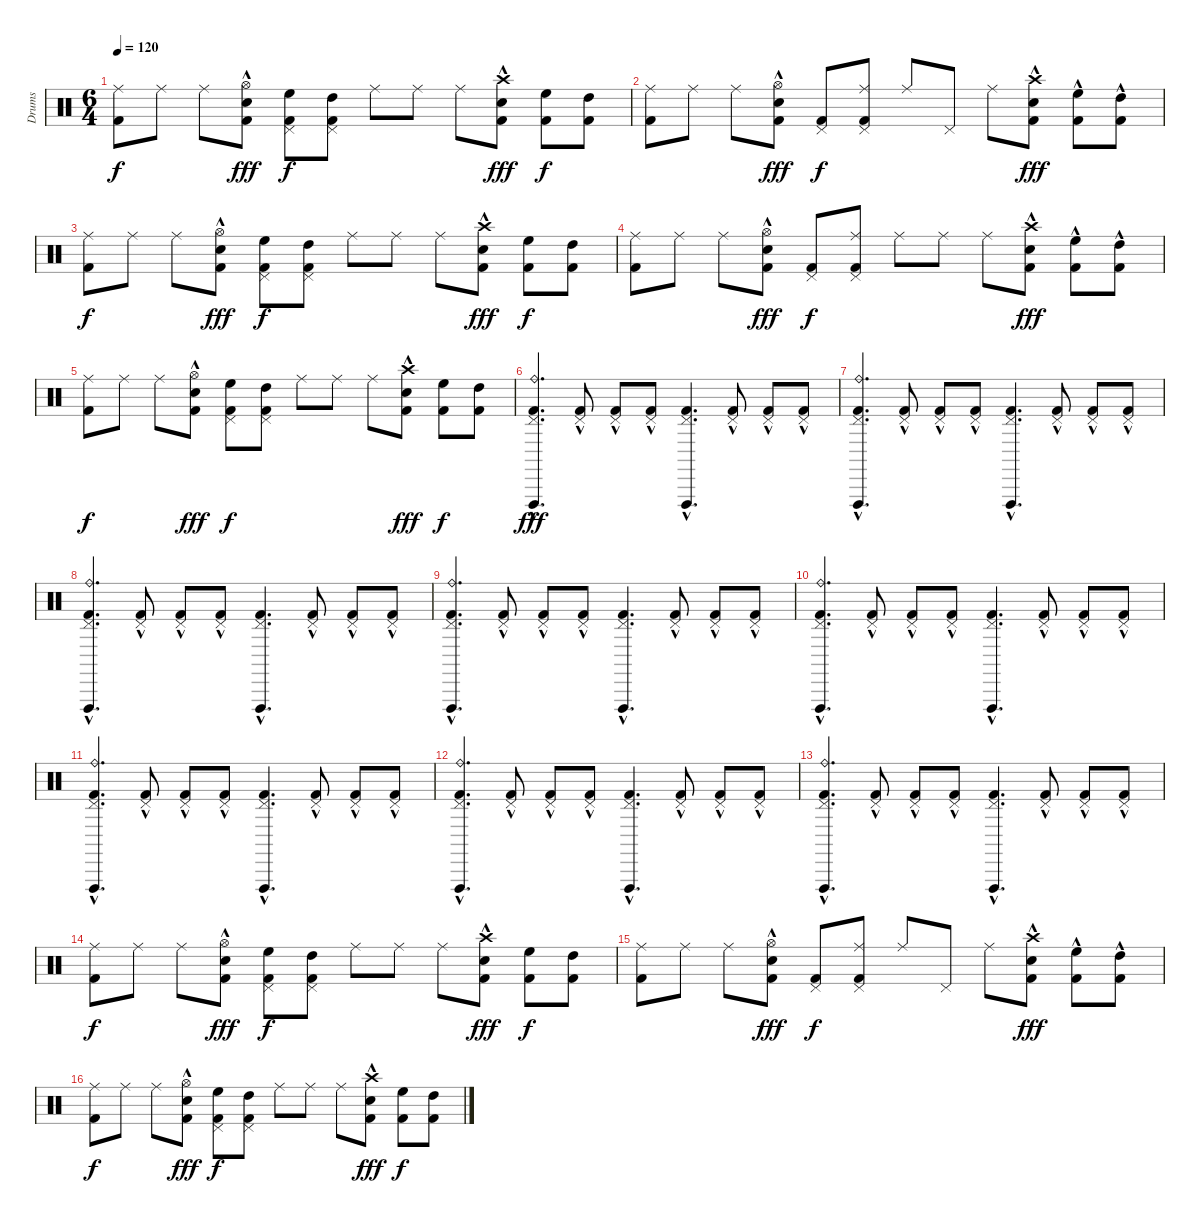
\track ("Drums" "Drums") {instrument percussion}
\staff {score}
\articulation defaults
\ts (6 4)
\tempo 120
\clef neutral
\ks c
("Ride (middle)" "Kick (hit) 2").8{dy f} "Ride (middle)".8 "Ride (middle)".8 ("Hi-Hat (open)" "Snare (hit) 2"{hac} "Kick (hit) 2").8{dy fff} ("Pedal Hi-Hat (hit)" "High Floor Tom (hit)" "Kick (hit) 2").8{dy f} ("Pedal Hi-Hat (hit)" "High Tom (hit)" "Kick (hit) 2").8 "Ride (middle)".8 "Ride (middle)".8 "Ride (middle)".8 ("Crash high (hit)" "Snare (hit) 2"{hac} "Kick (hit) 2").8{dy fff} ("High Floor Tom (hit)" "Kick (hit) 2").8{dy f} ("High Tom (hit)" "Kick (hit) 2").8 |
("Ride (middle)" "Kick (hit) 2").8 "Ride (middle)".8 "Ride (middle)".8 ("Hi-Hat (open)" "Snare (hit) 2"{hac} "Kick (hit) 2").8{dy fff} ("Pedal Hi-Hat (hit)" "Kick (hit) 2").8{dy f} ("Pedal Hi-Hat (hit)" "Ride (middle)" "Kick (hit) 2").8 "Ride (middle)".8 "Pedal Hi-Hat (hit)".8 "Ride (middle)".8 ("Crash high (hit)" "Snare (hit) 2"{hac} "Kick (hit) 2").8{dy fff} ("High Floor Tom (hit)"{hac} "Kick (hit) 2").8 ("High Tom (hit)"{hac} "Kick (hit) 2").8 |
("Ride (middle)" "Kick (hit) 2").8{dy f} "Ride (middle)".8 "Ride (middle)".8 ("Hi-Hat (open)" "Snare (hit) 2"{hac} "Kick (hit) 2").8{dy fff} ("Pedal Hi-Hat (hit)" "High Floor Tom (hit)" "Kick (hit) 2").8{dy f} ("Pedal Hi-Hat (hit)" "High Tom (hit)" "Kick (hit) 2").8 "Ride (middle)".8 "Ride (middle)".8 "Ride (middle)".8 ("Crash high (hit)" "Snare (hit) 2"{hac} "Kick (hit) 2").8{dy fff} ("High Floor Tom (hit)" "Kick (hit) 2").8{dy f} ("High Tom (hit)" "Kick (hit) 2").8 |
("Ride (middle)" "Kick (hit) 2").8 "Ride (middle)".8 "Ride (middle)".8 ("Hi-Hat (open)" "Snare (hit) 2"{hac} "Kick (hit) 2").8{dy fff} ("Pedal Hi-Hat (hit)" "Kick (hit) 2").8{dy f} ("Pedal Hi-Hat (hit)" "Ride (middle)" "Kick (hit) 2").8 "Ride (middle)".8 "Ride (middle)".8 "Ride (middle)".8 ("Crash high (hit)" "Snare (hit) 2"{hac} "Kick (hit) 2").8{dy fff} ("High Floor Tom (hit)"{hac} "Kick (hit) 2").8 ("High Tom (hit)"{hac} "Kick (hit) 2").8 |
("Ride (middle)" "Kick (hit) 2").8{dy f} "Ride (middle)".8 "Ride (middle)".8 ("Hi-Hat (open)" "Snare (hit) 2"{hac} "Kick (hit) 2").8{dy fff} ("Pedal Hi-Hat (hit)" "High Floor Tom (hit)" "Kick (hit) 2").8{dy f} ("Pedal Hi-Hat (hit)" "High Tom (hit)" "Kick (hit) 2").8 "Ride (middle)".8 "Ride (middle)".8 "Ride (middle)".8 ("Crash high (hit)" "Snare (hit) 2"{hac} "Kick (hit) 2").8{dy fff} ("High Floor Tom (hit)" "Kick (hit) 2").8{dy f} ("High Tom (hit)" "Kick (hit) 2").8 |
("Pedal Hi-Hat (hit)" "Ride (bell)" "Vibraslap (hit)"{hac} "Kick (hit) 2"{hac}).4{d dy fff} ("Pedal Hi-Hat (hit)" "Kick (hit) 2"{hac}).8 ("Pedal Hi-Hat (hit)" "Kick (hit) 2"{hac}).8 ("Pedal Hi-Hat (hit)" "Kick (hit) 2"{hac}).8 ("Pedal Hi-Hat (hit)" "Vibraslap (hit)"{hac} "Kick (hit) 2"{hac}).4{d} ("Pedal Hi-Hat (hit)" "Kick (hit) 2"{hac}).8 ("Pedal Hi-Hat (hit)" "Kick (hit) 2"{hac}).8 ("Pedal Hi-Hat (hit)" "Kick (hit) 2"{hac}).8 |
("Pedal Hi-Hat (hit)" "Ride (bell)" "Vibraslap (hit)"{hac} "Kick (hit) 2"{hac}).4{d} ("Pedal Hi-Hat (hit)" "Kick (hit) 2"{hac}).8 ("Pedal Hi-Hat (hit)" "Kick (hit) 2"{hac}).8 ("Pedal Hi-Hat (hit)" "Kick (hit) 2"{hac}).8 ("Pedal Hi-Hat (hit)" "Vibraslap (hit)"{hac} "Kick (hit) 2"{hac}).4{d} ("Pedal Hi-Hat (hit)" "Kick (hit) 2"{hac}).8 ("Pedal Hi-Hat (hit)" "Kick (hit) 2"{hac}).8 ("Pedal Hi-Hat (hit)" "Kick (hit) 2"{hac}).8 |
("Pedal Hi-Hat (hit)" "Ride (bell)" "Vibraslap (hit)"{hac} "Kick (hit) 2"{hac}).4{d} ("Pedal Hi-Hat (hit)" "Kick (hit) 2"{hac}).8 ("Pedal Hi-Hat (hit)" "Kick (hit) 2"{hac}).8 ("Pedal Hi-Hat (hit)" "Kick (hit) 2"{hac}).8 ("Pedal Hi-Hat (hit)" "Vibraslap (hit)"{hac} "Kick (hit) 2"{hac}).4{d} ("Pedal Hi-Hat (hit)" "Kick (hit) 2"{hac}).8 ("Pedal Hi-Hat (hit)" "Kick (hit) 2"{hac}).8 ("Pedal Hi-Hat (hit)" "Kick (hit) 2"{hac}).8 |
("Pedal Hi-Hat (hit)" "Ride (bell)" "Vibraslap (hit)"{hac} "Kick (hit) 2"{hac}).4{d} ("Pedal Hi-Hat (hit)" "Kick (hit) 2"{hac}).8 ("Pedal Hi-Hat (hit)" "Kick (hit) 2"{hac}).8 ("Pedal Hi-Hat (hit)" "Kick (hit) 2"{hac}).8 ("Pedal Hi-Hat (hit)" "Vibraslap (hit)"{hac} "Kick (hit) 2"{hac}).4{d} ("Pedal Hi-Hat (hit)" "Kick (hit) 2"{hac}).8 ("Pedal Hi-Hat (hit)" "Kick (hit) 2"{hac}).8 ("Pedal Hi-Hat (hit)" "Kick (hit) 2"{hac}).8 |
("Pedal Hi-Hat (hit)" "Ride (bell)" "Vibraslap (hit)"{hac} "Kick (hit) 2"{hac}).4{d} ("Pedal Hi-Hat (hit)" "Kick (hit) 2"{hac}).8 ("Pedal Hi-Hat (hit)" "Kick (hit) 2"{hac}).8 ("Pedal Hi-Hat (hit)" "Kick (hit) 2"{hac}).8 ("Pedal Hi-Hat (hit)" "Vibraslap (hit)"{hac} "Kick (hit) 2"{hac}).4{d} ("Pedal Hi-Hat (hit)" "Kick (hit) 2"{hac}).8 ("Pedal Hi-Hat (hit)" "Kick (hit) 2"{hac}).8 ("Pedal Hi-Hat (hit)" "Kick (hit) 2"{hac}).8 |
("Pedal Hi-Hat (hit)" "Ride (bell)" "Vibraslap (hit)"{hac} "Kick (hit) 2"{hac}).4{d} ("Pedal Hi-Hat (hit)" "Kick (hit) 2"{hac}).8 ("Pedal Hi-Hat (hit)" "Kick (hit) 2"{hac}).8 ("Pedal Hi-Hat (hit)" "Kick (hit) 2"{hac}).8 ("Pedal Hi-Hat (hit)" "Vibraslap (hit)"{hac} "Kick (hit) 2"{hac}).4{d} ("Pedal Hi-Hat (hit)" "Kick (hit) 2"{hac}).8 ("Pedal Hi-Hat (hit)" "Kick (hit) 2"{hac}).8 ("Pedal Hi-Hat (hit)" "Kick (hit) 2"{hac}).8 |
("Pedal Hi-Hat (hit)" "Ride (bell)" "Vibraslap (hit)"{hac} "Kick (hit) 2"{hac}).4{d} ("Pedal Hi-Hat (hit)" "Kick (hit) 2"{hac}).8 ("Pedal Hi-Hat (hit)" "Kick (hit) 2"{hac}).8 ("Pedal Hi-Hat (hit)" "Kick (hit) 2"{hac}).8 ("Pedal Hi-Hat (hit)" "Vibraslap (hit)"{hac} "Kick (hit) 2"{hac}).4{d} ("Pedal Hi-Hat (hit)" "Kick (hit) 2"{hac}).8 ("Pedal Hi-Hat (hit)" "Kick (hit) 2"{hac}).8 ("Pedal Hi-Hat (hit)" "Kick (hit) 2"{hac}).8 |
("Pedal Hi-Hat (hit)" "Ride (bell)" "Vibraslap (hit)"{hac} "Kick (hit) 2"{hac}).4{d} ("Pedal Hi-Hat (hit)" "Kick (hit) 2"{hac}).8 ("Pedal Hi-Hat (hit)" "Kick (hit) 2"{hac}).8 ("Pedal Hi-Hat (hit)" "Kick (hit) 2"{hac}).8 ("Pedal Hi-Hat (hit)" "Vibraslap (hit)"{hac} "Kick (hit) 2"{hac}).4{d} ("Pedal Hi-Hat (hit)" "Kick (hit) 2"{hac}).8 ("Pedal Hi-Hat (hit)" "Kick (hit) 2"{hac}).8 ("Pedal Hi-Hat (hit)" "Kick (hit) 2"{hac}).8 |
("Ride (middle)" "Kick (hit) 2").8{dy f} "Ride (middle)".8 "Ride (middle)".8 ("Hi-Hat (open)" "Snare (hit) 2"{hac} "Kick (hit) 2").8{dy fff} ("Pedal Hi-Hat (hit)" "High Floor Tom (hit)" "Kick (hit) 2").8{dy f} ("Pedal Hi-Hat (hit)" "High Tom (hit)" "Kick (hit) 2").8 "Ride (middle)".8 "Ride (middle)".8 "Ride (middle)".8 ("Crash high (hit)" "Snare (hit) 2"{hac} "Kick (hit) 2").8{dy fff} ("High Floor Tom (hit)" "Kick (hit) 2").8{dy f} ("High Tom (hit)" "Kick (hit) 2").8 |
("Ride (middle)" "Kick (hit) 2").8 "Ride (middle)".8 "Ride (middle)".8 ("Hi-Hat (open)" "Snare (hit) 2"{hac} "Kick (hit) 2").8{dy fff} ("Pedal Hi-Hat (hit)" "Kick (hit) 2").8{dy f} ("Pedal Hi-Hat (hit)" "Ride (middle)" "Kick (hit) 2").8 "Ride (middle)".8 "Pedal Hi-Hat (hit)".8 "Ride (middle)".8 ("Crash high (hit)" "Snare (hit) 2"{hac} "Kick (hit) 2").8{dy fff} ("High Floor Tom (hit)"{hac} "Kick (hit) 2").8 ("High Tom (hit)"{hac} "Kick (hit) 2").8 |
("Ride (middle)" "Kick (hit) 2").8{dy f} "Ride (middle)".8 "Ride (middle)".8 ("Hi-Hat (open)" "Snare (hit) 2"{hac} "Kick (hit) 2").8{dy fff} ("Pedal Hi-Hat (hit)" "High Floor Tom (hit)" "Kick (hit) 2").8{dy f} ("Pedal Hi-Hat (hit)" "High Tom (hit)" "Kick (hit) 2").8 "Ride (middle)".8 "Ride (middle)".8 "Ride (middle)".8 ("Crash high (hit)" "Snare (hit) 2"{hac} "Kick (hit) 2").8{dy fff} ("High Floor Tom (hit)" "Kick (hit) 2").8{dy f} ("High Tom (hit)" "Kick (hit) 2").8
